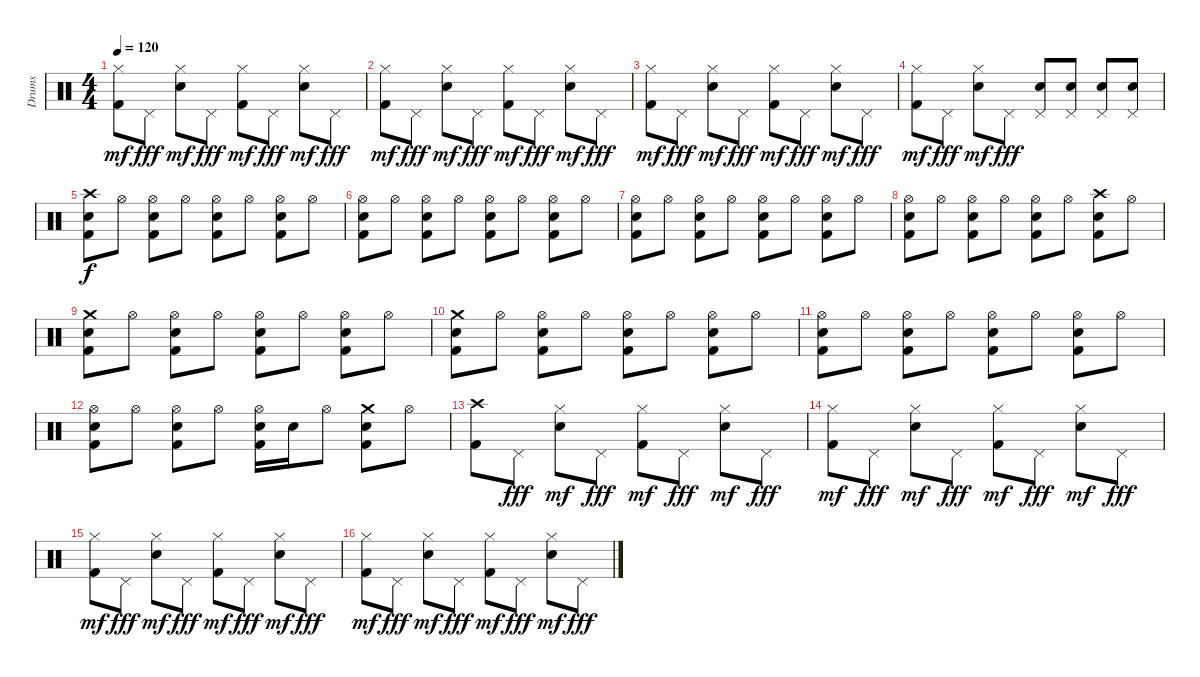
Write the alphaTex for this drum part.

\track ("Drums" "Drums") {instrument percussion}
\staff {score}
\articulation defaults
\ts (4 4)
\tempo 120
\clef neutral
\ks c
("Kick (hit) 2" "Hi-Hat (closed)").8{dy mf} "Pedal Hi-Hat (hit)".8{dy fff} ("Hi-Hat (closed)" "Snare (hit) 2").8{dy mf} "Pedal Hi-Hat (hit)".8{dy fff} ("Kick (hit) 2" "Hi-Hat (closed)").8{dy mf} "Pedal Hi-Hat (hit)".8{dy fff} ("Hi-Hat (closed)" "Snare (hit) 2").8{dy mf} "Pedal Hi-Hat (hit)".8{dy fff} |
("Kick (hit) 2" "Hi-Hat (closed)").8{dy mf} "Pedal Hi-Hat (hit)".8{dy fff} ("Hi-Hat (closed)" "Snare (hit) 2").8{dy mf} "Pedal Hi-Hat (hit)".8{dy fff} ("Kick (hit) 2" "Hi-Hat (closed)").8{dy mf} "Pedal Hi-Hat (hit)".8{dy fff} ("Hi-Hat (closed)" "Snare (hit) 2").8{dy mf} "Pedal Hi-Hat (hit)".8{dy fff} |
("Kick (hit) 2" "Hi-Hat (closed)").8{dy mf} "Pedal Hi-Hat (hit)".8{dy fff} ("Hi-Hat (closed)" "Snare (hit) 2").8{dy mf} "Pedal Hi-Hat (hit)".8{dy fff} ("Kick (hit) 2" "Hi-Hat (closed)").8{dy mf} "Pedal Hi-Hat (hit)".8{dy fff} ("Hi-Hat (closed)" "Snare (hit) 2").8{dy mf} "Pedal Hi-Hat (hit)".8{dy fff} |
("Kick (hit) 2" "Hi-Hat (closed)").8{dy mf} "Pedal Hi-Hat (hit)".8{dy fff} ("Hi-Hat (closed)" "Snare (hit) 2").8{dy mf} "Pedal Hi-Hat (hit)".8{dy fff} ("Pedal Hi-Hat (hit)" "Snare (hit) 2").8 ("Pedal Hi-Hat (hit)" "Snare (hit) 2").8 ("Pedal Hi-Hat (hit)" "Snare (hit) 2").8 ("Pedal Hi-Hat (hit)" "Snare (hit) 2").8 |
("Kick (hit) 2" "Crash high (hit)" "Snare (hit) 2").8{dy f} "Hi-Hat (open)".8 ("Kick (hit) 2" "Hi-Hat (open)" "Snare (hit) 2").8 "Hi-Hat (open)".8 ("Kick (hit) 2" "Hi-Hat (open)" "Snare (hit) 2").8 "Hi-Hat (open)".8 ("Kick (hit) 2" "Hi-Hat (open)" "Snare (hit) 2").8 "Hi-Hat (open)".8 |
("Kick (hit) 2" "Hi-Hat (open)" "Snare (hit) 2").8 "Hi-Hat (open)".8 ("Kick (hit) 2" "Hi-Hat (open)" "Snare (hit) 2").8 "Hi-Hat (open)".8 ("Kick (hit) 2" "Hi-Hat (open)" "Snare (hit) 2").8 "Hi-Hat (open)".8 ("Kick (hit) 2" "Hi-Hat (open)" "Snare (hit) 2").8 "Hi-Hat (open)".8 |
("Kick (hit) 2" "Hi-Hat (open)" "Snare (hit) 2").8 "Hi-Hat (open)".8 ("Kick (hit) 2" "Hi-Hat (open)" "Snare (hit) 2").8 "Hi-Hat (open)".8 ("Kick (hit) 2" "Hi-Hat (open)" "Snare (hit) 2").8 "Hi-Hat (open)".8 ("Kick (hit) 2" "Hi-Hat (open)" "Snare (hit) 2").8 "Hi-Hat (open)".8 |
("Kick (hit) 2" "Hi-Hat (open)" "Snare (hit) 2").8 "Hi-Hat (open)".8 ("Kick (hit) 2" "Hi-Hat (open)" "Snare (hit) 2").8 "Hi-Hat (open)".8 ("Kick (hit) 2" "Hi-Hat (open)" "Snare (hit) 2").8 "Hi-Hat (open)".8 ("Kick (hit) 2" "Crash high (hit)" "Snare (hit) 2").8 "Hi-Hat (open)".8 |
("Kick (hit) 2" "Crash medium (hit)" "Snare (hit) 2").8 "Hi-Hat (open)".8 ("Kick (hit) 2" "Hi-Hat (open)" "Snare (hit) 2").8 "Hi-Hat (open)".8 ("Kick (hit) 2" "Hi-Hat (open)" "Snare (hit) 2").8 "Hi-Hat (open)".8 ("Kick (hit) 2" "Hi-Hat (open)" "Snare (hit) 2").8 "Hi-Hat (open)".8 |
("Kick (hit) 2" "Crash medium (hit)" "Snare (hit) 2").8 "Hi-Hat (open)".8 ("Kick (hit) 2" "Hi-Hat (open)" "Snare (hit) 2").8 "Hi-Hat (open)".8 ("Kick (hit) 2" "Hi-Hat (open)" "Snare (hit) 2").8 "Hi-Hat (open)".8 ("Kick (hit) 2" "Hi-Hat (open)" "Snare (hit) 2").8 "Hi-Hat (open)".8 |
("Kick (hit) 2" "Hi-Hat (open)" "Snare (hit) 2").8 "Hi-Hat (open)".8 ("Kick (hit) 2" "Hi-Hat (open)" "Snare (hit) 2").8 "Hi-Hat (open)".8 ("Kick (hit) 2" "Hi-Hat (open)" "Snare (hit) 2").8 "Hi-Hat (open)".8 ("Kick (hit) 2" "Hi-Hat (open)" "Snare (hit) 2").8 "Hi-Hat (open)".8 |
("Kick (hit) 2" "Hi-Hat (open)" "Snare (hit) 2").8 "Hi-Hat (open)".8 ("Kick (hit) 2" "Hi-Hat (open)" "Snare (hit) 2").8 "Hi-Hat (open)".8 ("Kick (hit) 2" "Hi-Hat (open)" "Snare (hit) 2").16 "Snare (hit) 2".16 "Hi-Hat (open)".8 ("Kick (hit) 2" "Crash medium (hit)" "Snare (hit) 2").8 "Hi-Hat (open)".8 |
("Kick (hit) 2" "Crash high (hit)").8 "Pedal Hi-Hat (hit)".8{dy fff} ("Hi-Hat (closed)" "Snare (hit) 2").8{dy mf} "Pedal Hi-Hat (hit)".8{dy fff} ("Kick (hit) 2" "Hi-Hat (closed)").8{dy mf} "Pedal Hi-Hat (hit)".8{dy fff} ("Hi-Hat (closed)" "Snare (hit) 2").8{dy mf} "Pedal Hi-Hat (hit)".8{dy fff} |
("Kick (hit) 2" "Hi-Hat (closed)").8{dy mf} "Pedal Hi-Hat (hit)".8{dy fff} ("Hi-Hat (closed)" "Snare (hit) 2").8{dy mf} "Pedal Hi-Hat (hit)".8{dy fff} ("Kick (hit) 2" "Hi-Hat (closed)").8{dy mf} "Pedal Hi-Hat (hit)".8{dy fff} ("Hi-Hat (closed)" "Snare (hit) 2").8{dy mf} "Pedal Hi-Hat (hit)".8{dy fff} |
("Kick (hit) 2" "Hi-Hat (closed)").8{dy mf} "Pedal Hi-Hat (hit)".8{dy fff} ("Hi-Hat (closed)" "Snare (hit) 2").8{dy mf} "Pedal Hi-Hat (hit)".8{dy fff} ("Kick (hit) 2" "Hi-Hat (closed)").8{dy mf} "Pedal Hi-Hat (hit)".8{dy fff} ("Hi-Hat (closed)" "Snare (hit) 2").8{dy mf} "Pedal Hi-Hat (hit)".8{dy fff} |
("Kick (hit) 2" "Hi-Hat (closed)").8{dy mf} "Pedal Hi-Hat (hit)".8{dy fff} ("Hi-Hat (closed)" "Snare (hit) 2").8{dy mf} "Pedal Hi-Hat (hit)".8{dy fff} ("Kick (hit) 2" "Hi-Hat (closed)").8{dy mf} "Pedal Hi-Hat (hit)".8{dy fff} ("Hi-Hat (closed)" "Snare (hit) 2").8{dy mf} "Pedal Hi-Hat (hit)".8{dy fff}
